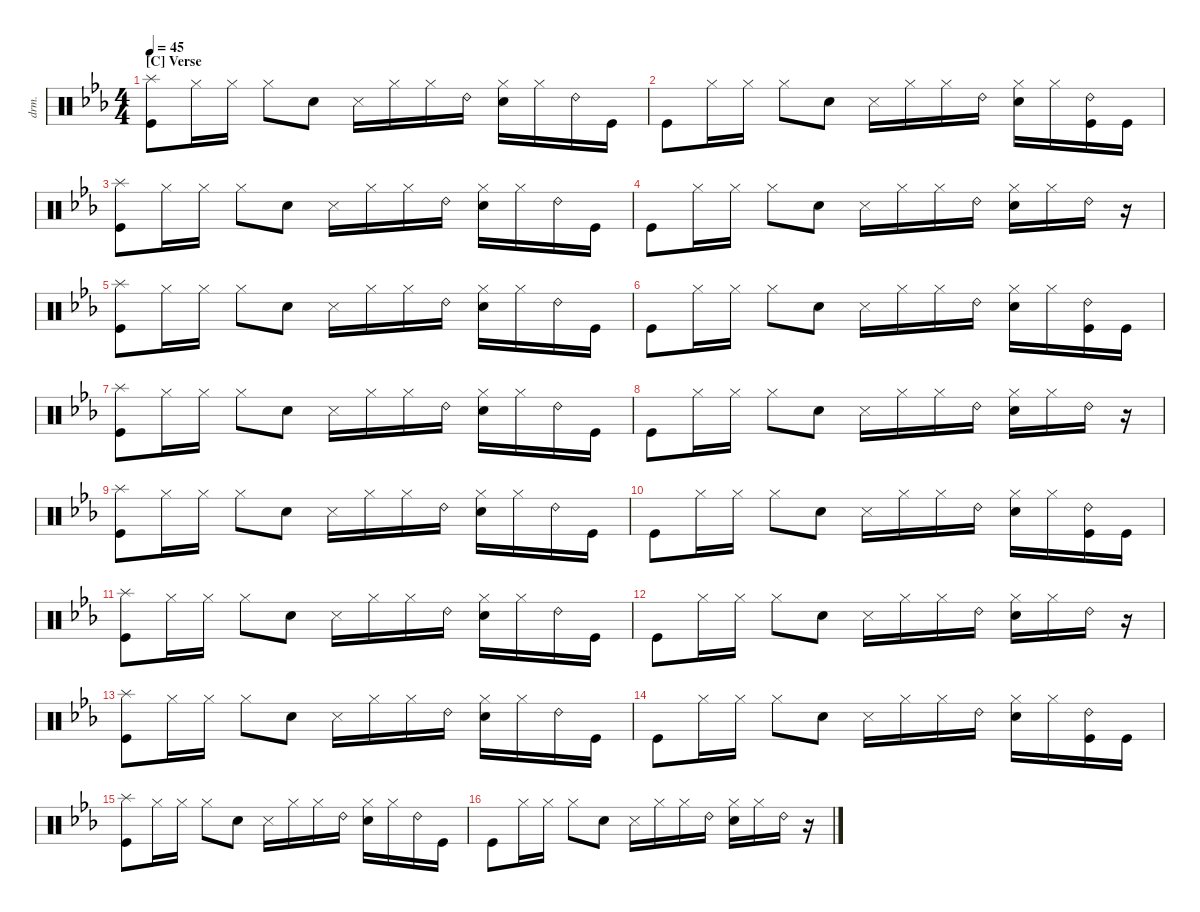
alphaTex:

\defaultSystemsLayout 4
\hideDynamics
\bracketExtendMode nobrackets
\otherSystemsTrackNameOrientation horizontal
\track ("Drumkit" "drm.") {instrument percussion}
\staff {score}
\articulation defaults
\ts (4 4)
\section ("C" "Verse")
\tempo 45
\clef neutral
\ks cminor
("Kick (hit)" "Splash (hit)").8{dy mf} "Hi-Hat (closed)".16 "Hi-Hat (closed)".16 "Hi-Hat (closed)".8 "Snare (hit) 2".8 "Snare (side stick) 3".16 "Hi-Hat (closed)".16 "Hi-Hat (closed)".16 "Ride (bell) 2".16 ("Hi-Hat (closed)" "Snare (hit) 2").16 "Hi-Hat (closed)".16 "Ride (bell) 2".16 "Kick (hit)".16 |
"Kick (hit)".8 "Hi-Hat (closed)".16 "Hi-Hat (closed)".16 "Hi-Hat (closed)".8 "Snare (hit) 2".8 "Snare (side stick) 3".16 "Hi-Hat (closed)".16 "Hi-Hat (closed)".16 "Ride (bell) 2".16 ("Hi-Hat (closed)" "Snare (hit) 2").16 "Hi-Hat (closed)".16 ("Ride (bell) 2" "Kick (hit)").16 "Kick (hit)".16 |
("Kick (hit)" "Splash (hit)").8 "Hi-Hat (closed)".16 "Hi-Hat (closed)".16 "Hi-Hat (closed)".8 "Snare (hit) 2".8 "Snare (side stick) 3".16 "Hi-Hat (closed)".16 "Hi-Hat (closed)".16 "Ride (bell) 2".16 ("Hi-Hat (closed)" "Snare (hit) 2").16 "Hi-Hat (closed)".16 "Ride (bell) 2".16 "Kick (hit)".16 |
"Kick (hit)".8 "Hi-Hat (closed)".16 "Hi-Hat (closed)".16 "Hi-Hat (closed)".8 "Snare (hit) 2".8 "Snare (side stick) 3".16 "Hi-Hat (closed)".16 "Hi-Hat (closed)".16 "Ride (bell) 2".16 ("Hi-Hat (closed)" "Snare (hit) 2").16 "Hi-Hat (closed)".16 "Ride (bell) 2".16 r.16 |
("Kick (hit)" "Splash (hit)").8 "Hi-Hat (closed)".16 "Hi-Hat (closed)".16 "Hi-Hat (closed)".8 "Snare (hit) 2".8 "Snare (side stick) 3".16 "Hi-Hat (closed)".16 "Hi-Hat (closed)".16 "Ride (bell) 2".16 ("Hi-Hat (closed)" "Snare (hit) 2").16 "Hi-Hat (closed)".16 "Ride (bell) 2".16 "Kick (hit)".16 |
"Kick (hit)".8 "Hi-Hat (closed)".16 "Hi-Hat (closed)".16 "Hi-Hat (closed)".8 "Snare (hit) 2".8 "Snare (side stick) 3".16 "Hi-Hat (closed)".16 "Hi-Hat (closed)".16 "Ride (bell) 2".16 ("Hi-Hat (closed)" "Snare (hit) 2").16 "Hi-Hat (closed)".16 ("Ride (bell) 2" "Kick (hit)").16 "Kick (hit)".16 |
("Kick (hit)" "Splash (hit)").8 "Hi-Hat (closed)".16 "Hi-Hat (closed)".16 "Hi-Hat (closed)".8 "Snare (hit) 2".8 "Snare (side stick) 3".16 "Hi-Hat (closed)".16 "Hi-Hat (closed)".16 "Ride (bell) 2".16 ("Hi-Hat (closed)" "Snare (hit) 2").16 "Hi-Hat (closed)".16 "Ride (bell) 2".16 "Kick (hit)".16 |
"Kick (hit)".8 "Hi-Hat (closed)".16 "Hi-Hat (closed)".16 "Hi-Hat (closed)".8 "Snare (hit) 2".8 "Snare (side stick) 3".16 "Hi-Hat (closed)".16 "Hi-Hat (closed)".16 "Ride (bell) 2".16 ("Hi-Hat (closed)" "Snare (hit) 2").16 "Hi-Hat (closed)".16 "Ride (bell) 2".16 r.16 |
("Kick (hit)" "Splash (hit)").8 "Hi-Hat (closed)".16 "Hi-Hat (closed)".16 "Hi-Hat (closed)".8 "Snare (hit) 2".8 "Snare (side stick) 3".16 "Hi-Hat (closed)".16 "Hi-Hat (closed)".16 "Ride (bell) 2".16 ("Hi-Hat (closed)" "Snare (hit) 2").16 "Hi-Hat (closed)".16 "Ride (bell) 2".16 "Kick (hit)".16 |
"Kick (hit)".8 "Hi-Hat (closed)".16 "Hi-Hat (closed)".16 "Hi-Hat (closed)".8 "Snare (hit) 2".8 "Snare (side stick) 3".16 "Hi-Hat (closed)".16 "Hi-Hat (closed)".16 "Ride (bell) 2".16 ("Hi-Hat (closed)" "Snare (hit) 2").16 "Hi-Hat (closed)".16 ("Ride (bell) 2" "Kick (hit)").16 "Kick (hit)".16 |
("Kick (hit)" "Splash (hit)").8 "Hi-Hat (closed)".16 "Hi-Hat (closed)".16 "Hi-Hat (closed)".8 "Snare (hit) 2".8 "Snare (side stick) 3".16 "Hi-Hat (closed)".16 "Hi-Hat (closed)".16 "Ride (bell) 2".16 ("Hi-Hat (closed)" "Snare (hit) 2").16 "Hi-Hat (closed)".16 "Ride (bell) 2".16 "Kick (hit)".16 |
"Kick (hit)".8 "Hi-Hat (closed)".16 "Hi-Hat (closed)".16 "Hi-Hat (closed)".8 "Snare (hit) 2".8 "Snare (side stick) 3".16 "Hi-Hat (closed)".16 "Hi-Hat (closed)".16 "Ride (bell) 2".16 ("Hi-Hat (closed)" "Snare (hit) 2").16 "Hi-Hat (closed)".16 "Ride (bell) 2".16 r.16 |
("Kick (hit)" "Splash (hit)").8 "Hi-Hat (closed)".16 "Hi-Hat (closed)".16 "Hi-Hat (closed)".8 "Snare (hit) 2".8 "Snare (side stick) 3".16 "Hi-Hat (closed)".16 "Hi-Hat (closed)".16 "Ride (bell) 2".16 ("Hi-Hat (closed)" "Snare (hit) 2").16 "Hi-Hat (closed)".16 "Ride (bell) 2".16 "Kick (hit)".16 |
"Kick (hit)".8 "Hi-Hat (closed)".16 "Hi-Hat (closed)".16 "Hi-Hat (closed)".8 "Snare (hit) 2".8 "Snare (side stick) 3".16 "Hi-Hat (closed)".16 "Hi-Hat (closed)".16 "Ride (bell) 2".16 ("Hi-Hat (closed)" "Snare (hit) 2").16 "Hi-Hat (closed)".16 ("Ride (bell) 2" "Kick (hit)").16 "Kick (hit)".16 |
("Kick (hit)" "Splash (hit)").8 "Hi-Hat (closed)".16 "Hi-Hat (closed)".16 "Hi-Hat (closed)".8 "Snare (hit) 2".8 "Snare (side stick) 3".16 "Hi-Hat (closed)".16 "Hi-Hat (closed)".16 "Ride (bell) 2".16 ("Hi-Hat (closed)" "Snare (hit) 2").16 "Hi-Hat (closed)".16 "Ride (bell) 2".16 "Kick (hit)".16 |
"Kick (hit)".8 "Hi-Hat (closed)".16 "Hi-Hat (closed)".16 "Hi-Hat (closed)".8 "Snare (hit) 2".8 "Snare (side stick) 3".16 "Hi-Hat (closed)".16 "Hi-Hat (closed)".16 "Ride (bell) 2".16 ("Hi-Hat (closed)" "Snare (hit) 2").16 "Hi-Hat (closed)".16 "Ride (bell) 2".16 r.16
